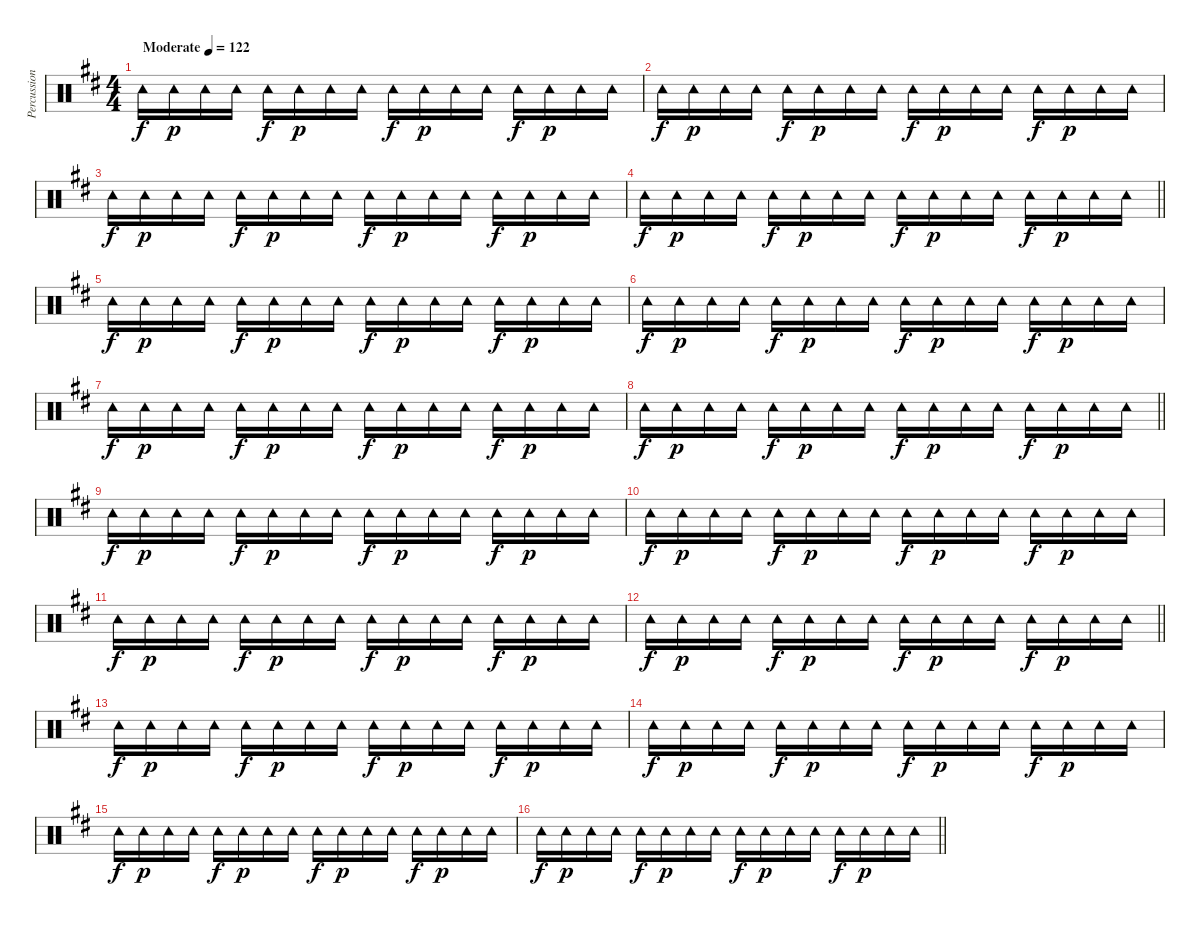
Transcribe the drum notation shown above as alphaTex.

\track ("Percussions" "Percussion") {instrument percussion}
\staff {score}
\articulation defaults
\ts (4 4)
\tempo (122 "Moderate")
\clef neutral
\ks d "Tambourine (hit)".16{dy f} "Tambourine (hit)".16{dy p} "Tambourine (hit)".16 "Tambourine (hit)".16 "Tambourine (hit)".16{dy f} "Tambourine (hit)".16{dy p} "Tambourine (hit)".16 "Tambourine (hit)".16 "Tambourine (hit)".16{dy f} "Tambourine (hit)".16{dy p} "Tambourine (hit)".16 "Tambourine (hit)".16 "Tambourine (hit)".16{dy f} "Tambourine (hit)".16{dy p} "Tambourine (hit)".16 "Tambourine (hit)".16
|
"Tambourine (hit)".16{dy f} "Tambourine (hit)".16{dy p} "Tambourine (hit)".16 "Tambourine (hit)".16 "Tambourine (hit)".16{dy f} "Tambourine (hit)".16{dy p} "Tambourine (hit)".16 "Tambourine (hit)".16 "Tambourine (hit)".16{dy f} "Tambourine (hit)".16{dy p} "Tambourine (hit)".16 "Tambourine (hit)".16 "Tambourine (hit)".16{dy f} "Tambourine (hit)".16{dy p} "Tambourine (hit)".16 "Tambourine (hit)".16 |
"Tambourine (hit)".16{dy f} "Tambourine (hit)".16{dy p} "Tambourine (hit)".16 "Tambourine (hit)".16 "Tambourine (hit)".16{dy f} "Tambourine (hit)".16{dy p} "Tambourine (hit)".16 "Tambourine (hit)".16 "Tambourine (hit)".16{dy f} "Tambourine (hit)".16{dy p} "Tambourine (hit)".16 "Tambourine (hit)".16 "Tambourine (hit)".16{dy f} "Tambourine (hit)".16{dy p} "Tambourine (hit)".16 "Tambourine (hit)".16 |
\barLineRight lightlight "Tambourine (hit)".16{dy f} "Tambourine (hit)".16{dy p} "Tambourine (hit)".16 "Tambourine (hit)".16 "Tambourine (hit)".16{dy f} "Tambourine (hit)".16{dy p} "Tambourine (hit)".16 "Tambourine (hit)".16 "Tambourine (hit)".16{dy f} "Tambourine (hit)".16{dy p} "Tambourine (hit)".16 "Tambourine (hit)".16 "Tambourine (hit)".16{dy f} "Tambourine (hit)".16{dy p} "Tambourine (hit)".16 "Tambourine (hit)".16
|
"Tambourine (hit)".16{dy f} "Tambourine (hit)".16{dy p} "Tambourine (hit)".16 "Tambourine (hit)".16 "Tambourine (hit)".16{dy f} "Tambourine (hit)".16{dy p} "Tambourine (hit)".16 "Tambourine (hit)".16 "Tambourine (hit)".16{dy f} "Tambourine (hit)".16{dy p} "Tambourine (hit)".16 "Tambourine (hit)".16 "Tambourine (hit)".16{dy f} "Tambourine (hit)".16{dy p} "Tambourine (hit)".16 "Tambourine (hit)".16 |
"Tambourine (hit)".16{dy f} "Tambourine (hit)".16{dy p} "Tambourine (hit)".16 "Tambourine (hit)".16 "Tambourine (hit)".16{dy f} "Tambourine (hit)".16{dy p} "Tambourine (hit)".16 "Tambourine (hit)".16 "Tambourine (hit)".16{dy f} "Tambourine (hit)".16{dy p} "Tambourine (hit)".16 "Tambourine (hit)".16 "Tambourine (hit)".16{dy f} "Tambourine (hit)".16{dy p} "Tambourine (hit)".16 "Tambourine (hit)".16 |
"Tambourine (hit)".16{dy f} "Tambourine (hit)".16{dy p} "Tambourine (hit)".16 "Tambourine (hit)".16 "Tambourine (hit)".16{dy f} "Tambourine (hit)".16{dy p} "Tambourine (hit)".16 "Tambourine (hit)".16 "Tambourine (hit)".16{dy f} "Tambourine (hit)".16{dy p} "Tambourine (hit)".16 "Tambourine (hit)".16 "Tambourine (hit)".16{dy f} "Tambourine (hit)".16{dy p} "Tambourine (hit)".16 "Tambourine (hit)".16 |
\barLineRight lightlight "Tambourine (hit)".16{dy f} "Tambourine (hit)".16{dy p} "Tambourine (hit)".16 "Tambourine (hit)".16 "Tambourine (hit)".16{dy f} "Tambourine (hit)".16{dy p} "Tambourine (hit)".16 "Tambourine (hit)".16 "Tambourine (hit)".16{dy f} "Tambourine (hit)".16{dy p} "Tambourine (hit)".16 "Tambourine (hit)".16 "Tambourine (hit)".16{dy f} "Tambourine (hit)".16{dy p} "Tambourine (hit)".16 "Tambourine (hit)".16
|
"Tambourine (hit)".16{dy f} "Tambourine (hit)".16{dy p} "Tambourine (hit)".16 "Tambourine (hit)".16 "Tambourine (hit)".16{dy f} "Tambourine (hit)".16{dy p} "Tambourine (hit)".16 "Tambourine (hit)".16 "Tambourine (hit)".16{dy f} "Tambourine (hit)".16{dy p} "Tambourine (hit)".16 "Tambourine (hit)".16 "Tambourine (hit)".16{dy f} "Tambourine (hit)".16{dy p} "Tambourine (hit)".16 "Tambourine (hit)".16 |
"Tambourine (hit)".16{dy f} "Tambourine (hit)".16{dy p} "Tambourine (hit)".16 "Tambourine (hit)".16 "Tambourine (hit)".16{dy f} "Tambourine (hit)".16{dy p} "Tambourine (hit)".16 "Tambourine (hit)".16 "Tambourine (hit)".16{dy f} "Tambourine (hit)".16{dy p} "Tambourine (hit)".16 "Tambourine (hit)".16 "Tambourine (hit)".16{dy f} "Tambourine (hit)".16{dy p} "Tambourine (hit)".16 "Tambourine (hit)".16 |
"Tambourine (hit)".16{dy f} "Tambourine (hit)".16{dy p} "Tambourine (hit)".16 "Tambourine (hit)".16 "Tambourine (hit)".16{dy f} "Tambourine (hit)".16{dy p} "Tambourine (hit)".16 "Tambourine (hit)".16 "Tambourine (hit)".16{dy f} "Tambourine (hit)".16{dy p} "Tambourine (hit)".16 "Tambourine (hit)".16 "Tambourine (hit)".16{dy f} "Tambourine (hit)".16{dy p} "Tambourine (hit)".16 "Tambourine (hit)".16 |
\barLineRight lightlight "Tambourine (hit)".16{dy f} "Tambourine (hit)".16{dy p} "Tambourine (hit)".16 "Tambourine (hit)".16 "Tambourine (hit)".16{dy f} "Tambourine (hit)".16{dy p} "Tambourine (hit)".16 "Tambourine (hit)".16 "Tambourine (hit)".16{dy f} "Tambourine (hit)".16{dy p} "Tambourine (hit)".16 "Tambourine (hit)".16 "Tambourine (hit)".16{dy f} "Tambourine (hit)".16{dy p} "Tambourine (hit)".16 "Tambourine (hit)".16
|
"Tambourine (hit)".16{dy f} "Tambourine (hit)".16{dy p} "Tambourine (hit)".16 "Tambourine (hit)".16 "Tambourine (hit)".16{dy f} "Tambourine (hit)".16{dy p} "Tambourine (hit)".16 "Tambourine (hit)".16 "Tambourine (hit)".16{dy f} "Tambourine (hit)".16{dy p} "Tambourine (hit)".16 "Tambourine (hit)".16 "Tambourine (hit)".16{dy f} "Tambourine (hit)".16{dy p} "Tambourine (hit)".16 "Tambourine (hit)".16 |
"Tambourine (hit)".16{dy f} "Tambourine (hit)".16{dy p} "Tambourine (hit)".16 "Tambourine (hit)".16 "Tambourine (hit)".16{dy f} "Tambourine (hit)".16{dy p} "Tambourine (hit)".16 "Tambourine (hit)".16 "Tambourine (hit)".16{dy f} "Tambourine (hit)".16{dy p} "Tambourine (hit)".16 "Tambourine (hit)".16 "Tambourine (hit)".16{dy f} "Tambourine (hit)".16{dy p} "Tambourine (hit)".16 "Tambourine (hit)".16 |
"Tambourine (hit)".16{dy f} "Tambourine (hit)".16{dy p} "Tambourine (hit)".16 "Tambourine (hit)".16 "Tambourine (hit)".16{dy f} "Tambourine (hit)".16{dy p} "Tambourine (hit)".16 "Tambourine (hit)".16 "Tambourine (hit)".16{dy f} "Tambourine (hit)".16{dy p} "Tambourine (hit)".16 "Tambourine (hit)".16 "Tambourine (hit)".16{dy f} "Tambourine (hit)".16{dy p} "Tambourine (hit)".16 "Tambourine (hit)".16 |
\barLineRight lightlight "Tambourine (hit)".16{dy f} "Tambourine (hit)".16{dy p} "Tambourine (hit)".16 "Tambourine (hit)".16 "Tambourine (hit)".16{dy f} "Tambourine (hit)".16{dy p} "Tambourine (hit)".16 "Tambourine (hit)".16 "Tambourine (hit)".16{dy f} "Tambourine (hit)".16{dy p} "Tambourine (hit)".16 "Tambourine (hit)".16 "Tambourine (hit)".16{dy f} "Tambourine (hit)".16{dy p} "Tambourine (hit)".16 "Tambourine (hit)".16
